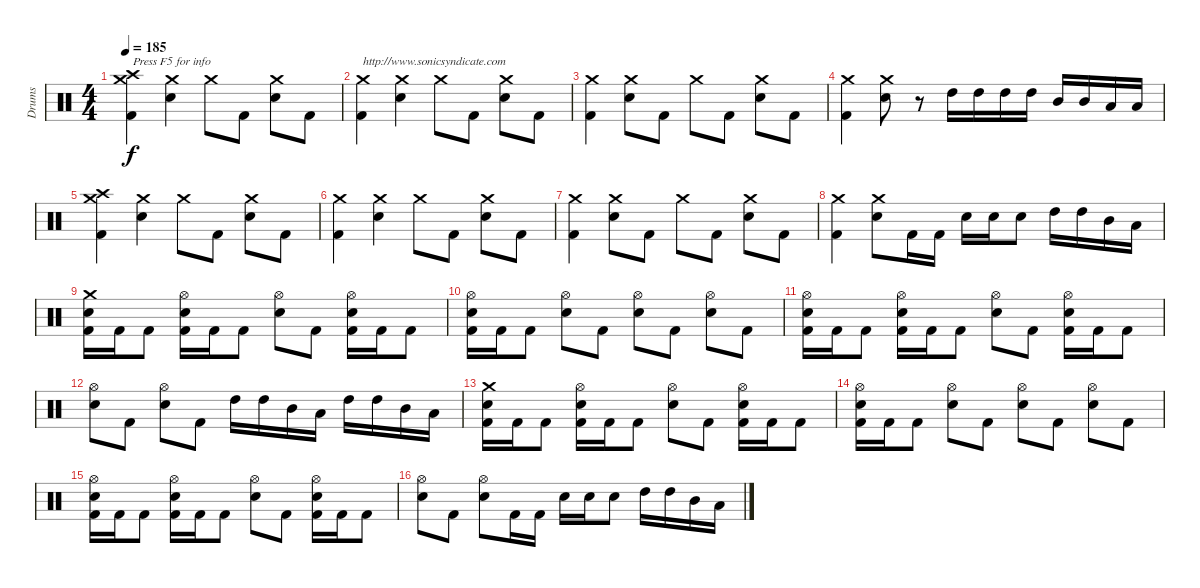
\track ("Drums" "Drums") {instrument percussion}
\staff {score}
\articulation defaults
\ts (4 4)
\tempo 185
\clef neutral
\ks c
("Crash high (hit)" "Crash medium (hit)" "Kick (hit) 2").4{txt "Press F5 for info" dy f} ("Snare (hit) 2" "Crash medium (hit)").4 "Crash medium (hit)".8 "Kick (hit) 2".8 ("Snare (hit) 2" "Crash medium (hit)").8 "Kick (hit) 2".8 |
("Crash medium (hit)" "Kick (hit) 2").4{txt "http://www.sonicsyndicate.com"} ("Snare (hit) 2" "Crash medium (hit)").4 "Crash medium (hit)".8 "Kick (hit) 2".8 ("Snare (hit) 2" "Crash medium (hit)").8 "Kick (hit) 2".8 |
("Crash medium (hit)" "Kick (hit) 2").4 ("Snare (hit) 2" "Crash medium (hit)").8 "Kick (hit) 2".8 "Crash medium (hit)".8 "Kick (hit) 2".8 ("Snare (hit) 2" "Crash medium (hit)").8 "Kick (hit) 2".8 |
("Crash medium (hit)" "Kick (hit) 2").4 ("Snare (hit) 2" "Crash medium (hit)").8 r.8 "High Tom (hit)".16 "High Tom (hit)".16 "High Tom (hit)".16 "High Tom (hit)".16 "Mid Tom (hit)".16 "Mid Tom (hit)".16 "Low Tom (hit)".16 "Low Tom (hit)".16 |
("Crash high (hit)" "Crash medium (hit)" "Kick (hit) 2").4 ("Snare (hit) 2" "Crash medium (hit)").4 "Crash medium (hit)".8 "Kick (hit) 2".8 ("Snare (hit) 2" "Crash medium (hit)").8 "Kick (hit) 2".8 |
("Crash medium (hit)" "Kick (hit) 2").4 ("Snare (hit) 2" "Crash medium (hit)").4 "Crash medium (hit)".8 "Kick (hit) 2".8 ("Snare (hit) 2" "Crash medium (hit)").8 "Kick (hit) 2".8 |
("Crash medium (hit)" "Kick (hit) 2").4 ("Snare (hit) 2" "Crash medium (hit)").8 "Kick (hit) 2".8 "Crash medium (hit)".8 "Kick (hit) 2".8 ("Snare (hit) 2" "Crash medium (hit)").8 "Kick (hit) 2".8 |
("Crash medium (hit)" "Kick (hit) 2").4 ("Snare (hit) 2" "Crash medium (hit)").8 "Kick (hit) 2".16 "Kick (hit) 2".16 "Snare (hit) 2".16 "Snare (hit) 2".16 "Snare (hit) 2".8 "High Tom (hit)".16 "High Tom (hit)".16 "Mid Tom (hit)".16 "Low Tom (hit)".16 |
("Snare (hit) 2" "Crash medium (hit)" "Kick (hit) 2").16 "Kick (hit) 2".16 "Kick (hit) 2".8 ("Snare (hit) 2" "Hi-Hat (open)" "Kick (hit) 2").16 "Kick (hit) 2".16 "Kick (hit) 2".8 ("Snare (hit) 2" "Hi-Hat (open)").8 "Kick (hit) 2".8 ("Snare (hit) 2" "Hi-Hat (open)" "Kick (hit) 2").16 "Kick (hit) 2".16 "Kick (hit) 2".8 |
("Snare (hit) 2" "Hi-Hat (open)" "Kick (hit) 2").16 "Kick (hit) 2".16 "Kick (hit) 2".8 ("Snare (hit) 2" "Hi-Hat (open)").8 "Kick (hit) 2".8 ("Snare (hit) 2" "Hi-Hat (open)").8 "Kick (hit) 2".8 ("Snare (hit) 2" "Hi-Hat (open)").8 "Kick (hit) 2".8 |
("Snare (hit) 2" "Hi-Hat (open)" "Kick (hit) 2").16 "Kick (hit) 2".16 "Kick (hit) 2".8 ("Snare (hit) 2" "Hi-Hat (open)" "Kick (hit) 2").16 "Kick (hit) 2".16 "Kick (hit) 2".8 ("Snare (hit) 2" "Hi-Hat (open)").8 "Kick (hit) 2".8 ("Snare (hit) 2" "Hi-Hat (open)" "Kick (hit) 2").16 "Kick (hit) 2".16 "Kick (hit) 2".8 |
("Snare (hit) 2" "Hi-Hat (open)").8 "Kick (hit) 2".8 ("Snare (hit) 2" "Hi-Hat (open)").8 "Kick (hit) 2".8 "High Tom (hit)".16 "High Tom (hit)".16 "Mid Tom (hit)".16 "Low Tom (hit)".16 "High Tom (hit)".16 "High Tom (hit)".16 "Mid Tom (hit)".16 "Low Tom (hit)".16 |
("Snare (hit) 2" "Crash medium (hit)" "Kick (hit) 2").16 "Kick (hit) 2".16 "Kick (hit) 2".8 ("Snare (hit) 2" "Hi-Hat (open)" "Kick (hit) 2").16 "Kick (hit) 2".16 "Kick (hit) 2".8 ("Snare (hit) 2" "Hi-Hat (open)").8 "Kick (hit) 2".8 ("Snare (hit) 2" "Hi-Hat (open)" "Kick (hit) 2").16 "Kick (hit) 2".16 "Kick (hit) 2".8 |
("Snare (hit) 2" "Hi-Hat (open)" "Kick (hit) 2").16 "Kick (hit) 2".16 "Kick (hit) 2".8 ("Snare (hit) 2" "Hi-Hat (open)").8 "Kick (hit) 2".8 ("Snare (hit) 2" "Hi-Hat (open)").8 "Kick (hit) 2".8 ("Snare (hit) 2" "Hi-Hat (open)").8 "Kick (hit) 2".8 |
("Snare (hit) 2" "Hi-Hat (open)" "Kick (hit) 2").16 "Kick (hit) 2".16 "Kick (hit) 2".8 ("Snare (hit) 2" "Hi-Hat (open)" "Kick (hit) 2").16 "Kick (hit) 2".16 "Kick (hit) 2".8 ("Snare (hit) 2" "Hi-Hat (open)").8 "Kick (hit) 2".8 ("Snare (hit) 2" "Hi-Hat (open)" "Kick (hit) 2").16 "Kick (hit) 2".16 "Kick (hit) 2".8 |
("Snare (hit) 2" "Hi-Hat (open)").8 "Kick (hit) 2".8 ("Snare (hit) 2" "Hi-Hat (open)").8 "Kick (hit) 2".16 "Kick (hit) 2".16 "Snare (hit) 2".16 "Snare (hit) 2".16 "Snare (hit) 2".8 "High Tom (hit)".16 "High Tom (hit)".16 "Mid Tom (hit)".16 "Low Tom (hit)".16
